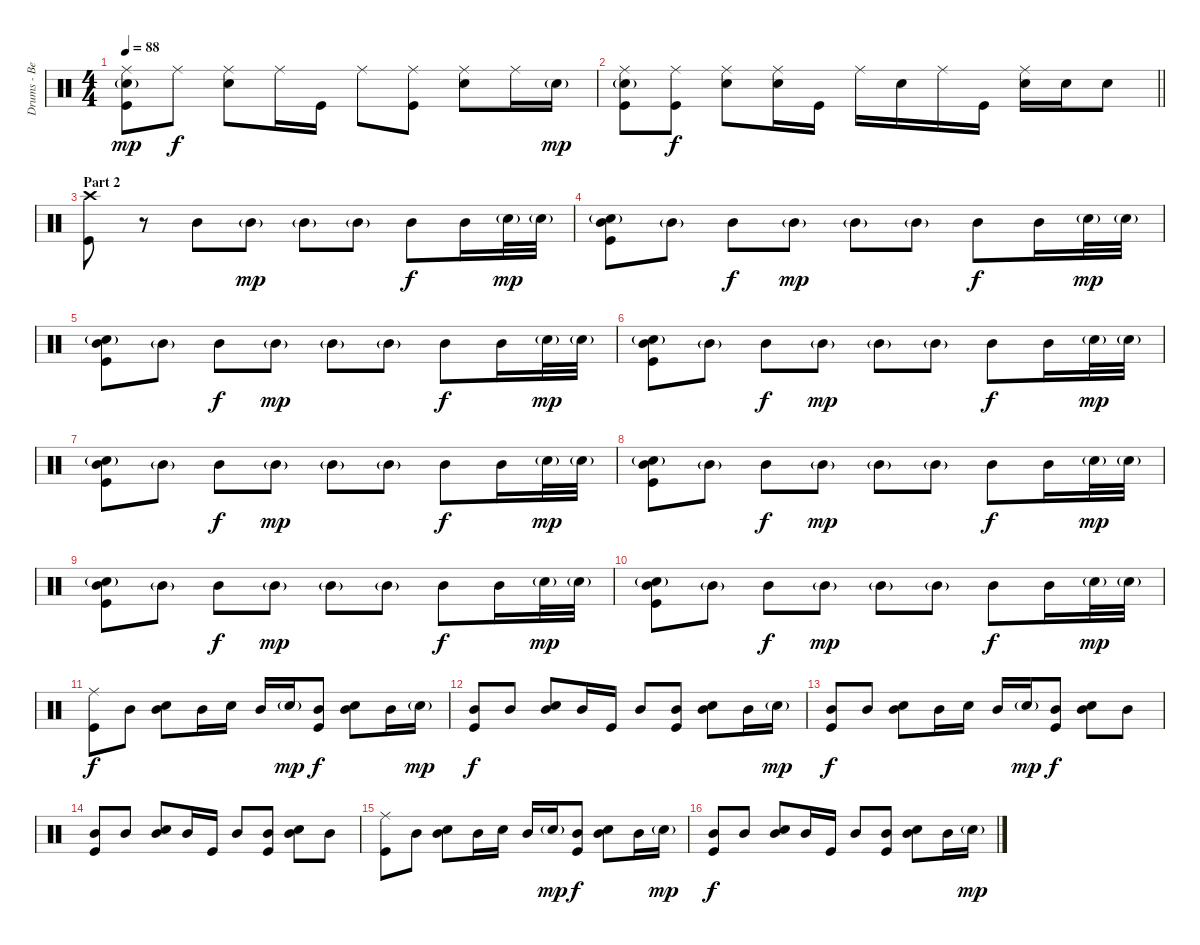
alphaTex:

\track ("Drums - Ben Johnston" "Drums - Be") {instrument percussion}
\staff {score}
\articulation defaults
\ts (4 4)
\tempo 88
\clef neutral
\ks c
("Ride (middle)" "Snare (hit) 2"{g} "Kick (hit)").8{dy mp} "Ride (middle)".8{dy f} ("Ride (middle)" "Snare (hit) 2").8 "Ride (middle)".16 "Kick (hit)".16 "Ride (middle)".8 ("Ride (middle)" "Kick (hit)").8 ("Ride (middle)" "Snare (hit) 2").8 "Ride (middle)".16 "Snare (hit) 2"{g}.16{dy mp} |
\barLineRight lightlight
("Ride (middle)" "Snare (hit) 2"{g} "Kick (hit)").8 ("Ride (middle)" "Kick (hit)").8{dy f} ("Ride (middle)" "Snare (hit) 2").8 ("Ride (middle)" "Snare (hit) 2").16 "Kick (hit)".16 "Ride (middle)".16 "Snare (hit) 2".16 "Ride (middle)".16 "Kick (hit)".16 ("Ride (middle)" "Snare (hit) 2").16 "Snare (hit) 2".16 "Snare (hit) 2".8 |
\section ("" "Part 2")
("Crash high (hit)" "Kick (hit)").8 r.8 "Mid Tom (hit)".8 "Mid Tom (hit)"{g}.8{dy mp} "Mid Tom (hit)"{g}.8 "Mid Tom (hit)"{g}.8 "Mid Tom (hit)".8{dy f} "Mid Tom (hit)".16 "Snare (hit) 2"{g}.32{dy mp} "Snare (hit) 2"{g}.32 |
("Mid Tom (hit)" "Snare (hit) 2"{g} "Kick (hit)").8 "Mid Tom (hit)"{g}.8 "Mid Tom (hit)".8{dy f} "Mid Tom (hit)"{g}.8{dy mp} "Mid Tom (hit)"{g}.8 "Mid Tom (hit)"{g}.8 "Mid Tom (hit)".8{dy f} "Mid Tom (hit)".16 "Snare (hit) 2"{g}.32{dy mp} "Snare (hit) 2"{g}.32 |
("Mid Tom (hit)" "Snare (hit) 2"{g} "Kick (hit)").8 "Mid Tom (hit)"{g}.8 "Mid Tom (hit)".8{dy f} "Mid Tom (hit)"{g}.8{dy mp} "Mid Tom (hit)"{g}.8 "Mid Tom (hit)"{g}.8 "Mid Tom (hit)".8{dy f} "Mid Tom (hit)".16 "Snare (hit) 2"{g}.32{dy mp} "Snare (hit) 2"{g}.32 |
("Mid Tom (hit)" "Snare (hit) 2"{g} "Kick (hit)").8 "Mid Tom (hit)"{g}.8 "Mid Tom (hit)".8{dy f} "Mid Tom (hit)"{g}.8{dy mp} "Mid Tom (hit)"{g}.8 "Mid Tom (hit)"{g}.8 "Mid Tom (hit)".8{dy f} "Mid Tom (hit)".16 "Snare (hit) 2"{g}.32{dy mp} "Snare (hit) 2"{g}.32 |
("Mid Tom (hit)" "Snare (hit) 2"{g} "Kick (hit)").8 "Mid Tom (hit)"{g}.8 "Mid Tom (hit)".8{dy f} "Mid Tom (hit)"{g}.8{dy mp} "Mid Tom (hit)"{g}.8 "Mid Tom (hit)"{g}.8 "Mid Tom (hit)".8{dy f} "Mid Tom (hit)".16 "Snare (hit) 2"{g}.32{dy mp} "Snare (hit) 2"{g}.32 |
("Mid Tom (hit)" "Snare (hit) 2"{g} "Kick (hit)").8 "Mid Tom (hit)"{g}.8 "Mid Tom (hit)".8{dy f} "Mid Tom (hit)"{g}.8{dy mp} "Mid Tom (hit)"{g}.8 "Mid Tom (hit)"{g}.8 "Mid Tom (hit)".8{dy f} "Mid Tom (hit)".16 "Snare (hit) 2"{g}.32{dy mp} "Snare (hit) 2"{g}.32 |
("Mid Tom (hit)" "Snare (hit) 2"{g} "Kick (hit)").8 "Mid Tom (hit)"{g}.8 "Mid Tom (hit)".8{dy f} "Mid Tom (hit)"{g}.8{dy mp} "Mid Tom (hit)"{g}.8 "Mid Tom (hit)"{g}.8 "Mid Tom (hit)".8{dy f} "Mid Tom (hit)".16 "Snare (hit) 2"{g}.32{dy mp} "Snare (hit) 2"{g}.32 |
("Mid Tom (hit)" "Snare (hit) 2"{g} "Kick (hit)").8 "Mid Tom (hit)"{g}.8 "Mid Tom (hit)".8{dy f} "Mid Tom (hit)"{g}.8{dy mp} "Mid Tom (hit)"{g}.8 "Mid Tom (hit)"{g}.8 "Mid Tom (hit)".8{dy f} "Mid Tom (hit)".16 "Snare (hit) 2"{g}.32{dy mp} "Snare (hit) 2"{g}.32 |
("Ride (middle)" "Kick (hit)").8{dy f} "Mid Tom (hit)".8 ("Mid Tom (hit)" "Snare (hit) 2").8 "Mid Tom (hit)".16 "Snare (hit) 2".16 "Mid Tom (hit)".16 "Snare (hit) 2"{g}.16{dy mp} ("Mid Tom (hit)" "Kick (hit)").8{dy f} ("Mid Tom (hit)" "Snare (hit) 2").8 "Mid Tom (hit)".16 "Snare (hit) 2"{g}.16{dy mp} |
("Mid Tom (hit)" "Kick (hit)").8{dy f} "Mid Tom (hit)".8 ("Mid Tom (hit)" "Snare (hit) 2").8 "Mid Tom (hit)".16 "Kick (hit)".16 "Mid Tom (hit)".8 ("Mid Tom (hit)" "Kick (hit)").8 ("Mid Tom (hit)" "Snare (hit) 2").8 "Mid Tom (hit)".16 "Snare (hit) 2"{g}.16{dy mp} |
("Mid Tom (hit)" "Kick (hit)").8{dy f} "Mid Tom (hit)".8 ("Mid Tom (hit)" "Snare (hit) 2").8 "Mid Tom (hit)".16 "Snare (hit) 2".16 "Mid Tom (hit)".16 "Snare (hit) 2"{g}.16{dy mp} ("Mid Tom (hit)" "Kick (hit)").8{dy f} ("Mid Tom (hit)" "Snare (hit) 2").8 "Mid Tom (hit)".8 |
("Mid Tom (hit)" "Kick (hit)").8 "Mid Tom (hit)".8 ("Mid Tom (hit)" "Snare (hit) 2").8 "Mid Tom (hit)".16 "Kick (hit)".16 "Mid Tom (hit)".8 ("Mid Tom (hit)" "Kick (hit)").8 ("Mid Tom (hit)" "Snare (hit) 2").8 "Mid Tom (hit)".8 |
("Ride (middle)" "Kick (hit)").8 "Mid Tom (hit)".8 ("Mid Tom (hit)" "Snare (hit) 2").8 "Mid Tom (hit)".16 "Snare (hit) 2".16 "Mid Tom (hit)".16 "Snare (hit) 2"{g}.16{dy mp} ("Mid Tom (hit)" "Kick (hit)").8{dy f} ("Mid Tom (hit)" "Snare (hit) 2").8 "Mid Tom (hit)".16 "Snare (hit) 2"{g}.16{dy mp} |
("Mid Tom (hit)" "Kick (hit)").8{dy f} "Mid Tom (hit)".8 ("Mid Tom (hit)" "Snare (hit) 2").8 "Mid Tom (hit)".16 "Kick (hit)".16 "Mid Tom (hit)".8 ("Mid Tom (hit)" "Kick (hit)").8 ("Mid Tom (hit)" "Snare (hit) 2").8 "Mid Tom (hit)".16 "Snare (hit) 2"{g}.16{dy mp}
